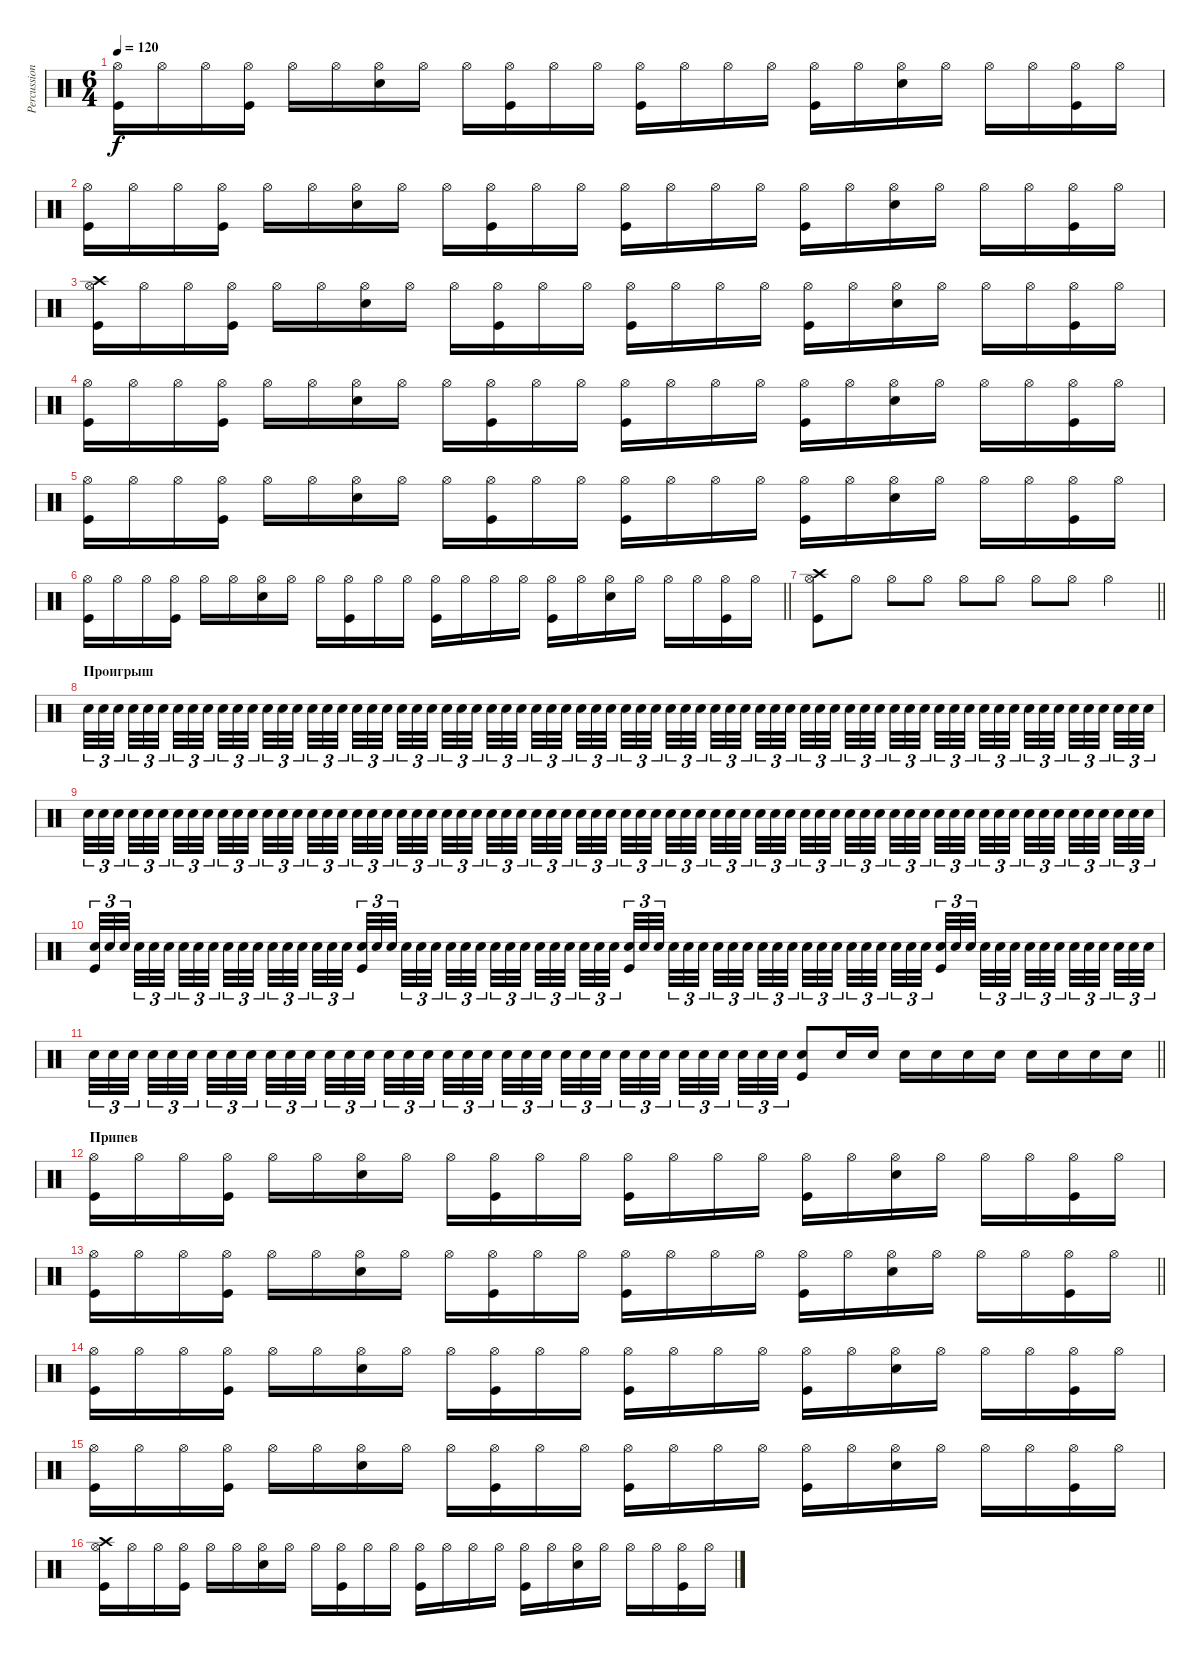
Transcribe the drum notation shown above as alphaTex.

\track ("Percussion" "Percussion") {instrument percussion}
\staff {score}
\articulation defaults
\ts (6 4)
\tempo 120
\clef neutral
\ks c
("Hi-Hat (open)" "Kick (hit)").16{dy f} "Hi-Hat (open)".16 "Hi-Hat (open)".16 ("Hi-Hat (open)" "Kick (hit)").16 "Hi-Hat (open)".16 "Hi-Hat (open)".16 ("Hi-Hat (open)" "Snare (hit) 2").16 "Hi-Hat (open)".16 "Hi-Hat (open)".16 ("Hi-Hat (open)" "Kick (hit)").16 "Hi-Hat (open)".16 "Hi-Hat (open)".16 ("Hi-Hat (open)" "Kick (hit)").16 "Hi-Hat (open)".16 "Hi-Hat (open)".16 "Hi-Hat (open)".16 ("Hi-Hat (open)" "Kick (hit)").16 "Hi-Hat (open)".16 ("Hi-Hat (open)" "Snare (hit) 2").16 "Hi-Hat (open)".16 "Hi-Hat (open)".16 "Hi-Hat (open)".16 ("Hi-Hat (open)" "Kick (hit)").16 "Hi-Hat (open)".16 |
("Hi-Hat (open)" "Kick (hit)").16 "Hi-Hat (open)".16 "Hi-Hat (open)".16 ("Hi-Hat (open)" "Kick (hit)").16 "Hi-Hat (open)".16 "Hi-Hat (open)".16 ("Hi-Hat (open)" "Snare (hit) 2").16 "Hi-Hat (open)".16 "Hi-Hat (open)".16 ("Hi-Hat (open)" "Kick (hit)").16 "Hi-Hat (open)".16 "Hi-Hat (open)".16 ("Hi-Hat (open)" "Kick (hit)").16 "Hi-Hat (open)".16 "Hi-Hat (open)".16 "Hi-Hat (open)".16 ("Hi-Hat (open)" "Kick (hit)").16 "Hi-Hat (open)".16 ("Hi-Hat (open)" "Snare (hit) 2").16 "Hi-Hat (open)".16 "Hi-Hat (open)".16 "Hi-Hat (open)".16 ("Hi-Hat (open)" "Kick (hit)").16 "Hi-Hat (open)".16 |
("Hi-Hat (open)" "Crash high (hit)" "Kick (hit)").16 "Hi-Hat (open)".16 "Hi-Hat (open)".16 ("Hi-Hat (open)" "Kick (hit)").16 "Hi-Hat (open)".16 "Hi-Hat (open)".16 ("Hi-Hat (open)" "Snare (hit) 2").16 "Hi-Hat (open)".16 "Hi-Hat (open)".16 ("Hi-Hat (open)" "Kick (hit)").16 "Hi-Hat (open)".16 "Hi-Hat (open)".16 ("Hi-Hat (open)" "Kick (hit)").16 "Hi-Hat (open)".16 "Hi-Hat (open)".16 "Hi-Hat (open)".16 ("Hi-Hat (open)" "Kick (hit)").16 "Hi-Hat (open)".16 ("Hi-Hat (open)" "Snare (hit) 2").16 "Hi-Hat (open)".16 "Hi-Hat (open)".16 "Hi-Hat (open)".16 ("Hi-Hat (open)" "Kick (hit)").16 "Hi-Hat (open)".16 |
("Hi-Hat (open)" "Kick (hit)").16 "Hi-Hat (open)".16 "Hi-Hat (open)".16 ("Hi-Hat (open)" "Kick (hit)").16 "Hi-Hat (open)".16 "Hi-Hat (open)".16 ("Hi-Hat (open)" "Snare (hit) 2").16 "Hi-Hat (open)".16 "Hi-Hat (open)".16 ("Hi-Hat (open)" "Kick (hit)").16 "Hi-Hat (open)".16 "Hi-Hat (open)".16 ("Hi-Hat (open)" "Kick (hit)").16 "Hi-Hat (open)".16 "Hi-Hat (open)".16 "Hi-Hat (open)".16 ("Hi-Hat (open)" "Kick (hit)").16 "Hi-Hat (open)".16 ("Hi-Hat (open)" "Snare (hit) 2").16 "Hi-Hat (open)".16 "Hi-Hat (open)".16 "Hi-Hat (open)".16 ("Hi-Hat (open)" "Kick (hit)").16 "Hi-Hat (open)".16 |
("Hi-Hat (open)" "Kick (hit)").16 "Hi-Hat (open)".16 "Hi-Hat (open)".16 ("Hi-Hat (open)" "Kick (hit)").16 "Hi-Hat (open)".16 "Hi-Hat (open)".16 ("Hi-Hat (open)" "Snare (hit) 2").16 "Hi-Hat (open)".16 "Hi-Hat (open)".16 ("Hi-Hat (open)" "Kick (hit)").16 "Hi-Hat (open)".16 "Hi-Hat (open)".16 ("Hi-Hat (open)" "Kick (hit)").16 "Hi-Hat (open)".16 "Hi-Hat (open)".16 "Hi-Hat (open)".16 ("Hi-Hat (open)" "Kick (hit)").16 "Hi-Hat (open)".16 ("Hi-Hat (open)" "Snare (hit) 2").16 "Hi-Hat (open)".16 "Hi-Hat (open)".16 "Hi-Hat (open)".16 ("Hi-Hat (open)" "Kick (hit)").16 "Hi-Hat (open)".16 |
\barLineRight lightlight
("Hi-Hat (open)" "Kick (hit)").16 "Hi-Hat (open)".16 "Hi-Hat (open)".16 ("Hi-Hat (open)" "Kick (hit)").16 "Hi-Hat (open)".16 "Hi-Hat (open)".16 ("Hi-Hat (open)" "Snare (hit) 2").16 "Hi-Hat (open)".16 "Hi-Hat (open)".16 ("Hi-Hat (open)" "Kick (hit)").16 "Hi-Hat (open)".16 "Hi-Hat (open)".16 ("Hi-Hat (open)" "Kick (hit)").16 "Hi-Hat (open)".16 "Hi-Hat (open)".16 "Hi-Hat (open)".16 ("Hi-Hat (open)" "Kick (hit)").16 "Hi-Hat (open)".16 ("Hi-Hat (open)" "Snare (hit) 2").16 "Hi-Hat (open)".16 "Hi-Hat (open)".16 "Hi-Hat (open)".16 ("Hi-Hat (open)" "Kick (hit)").16 "Hi-Hat (open)".16 |
\barLineRight lightlight
("Hi-Hat (open)" "Kick (hit)" "Crash high (hit)").8 "Hi-Hat (open)".8 "Hi-Hat (open)".8 "Hi-Hat (open)".8 "Hi-Hat (open)".8 "Hi-Hat (open)".8 "Hi-Hat (open)".8 "Hi-Hat (open)".8 "Hi-Hat (open)".2 |
\section ("" "Проигрыш")
"Snare (hit) 2".32{tu (3 2) volume 4} "Snare (hit) 2".32{tu (3 2)} "Snare (hit) 2".32{tu (3 2) beam splitsecondary} "Snare (hit) 2".32{tu (3 2)} "Snare (hit) 2".32{tu (3 2)} "Snare (hit) 2".32{tu (3 2) beam splitsecondary} "Snare (hit) 2".32{tu (3 2)} "Snare (hit) 2".32{tu (3 2)} "Snare (hit) 2".32{tu (3 2) beam splitsecondary} "Snare (hit) 2".32{tu (3 2)} "Snare (hit) 2".32{tu (3 2)} "Snare (hit) 2".32{tu (3 2) beam splitsecondary} "Snare (hit) 2".32{tu (3 2)} "Snare (hit) 2".32{tu (3 2)} "Snare (hit) 2".32{tu (3 2) beam splitsecondary} "Snare (hit) 2".32{tu (3 2)} "Snare (hit) 2".32{tu (3 2)} "Snare (hit) 2".32{tu (3 2) beam splitsecondary} "Snare (hit) 2".32{tu (3 2)} "Snare (hit) 2".32{tu (3 2)} "Snare (hit) 2".32{tu (3 2) beam splitsecondary} "Snare (hit) 2".32{tu (3 2)} "Snare (hit) 2".32{tu (3 2)} "Snare (hit) 2".32{tu (3 2) beam splitsecondary} "Snare (hit) 2".32{tu (3 2)} "Snare (hit) 2".32{tu (3 2)} "Snare (hit) 2".32{tu (3 2) beam splitsecondary} "Snare (hit) 2".32{tu (3 2)} "Snare (hit) 2".32{tu (3 2)} "Snare (hit) 2".32{tu (3 2) beam splitsecondary} "Snare (hit) 2".32{tu (3 2)} "Snare (hit) 2".32{tu (3 2)} "Snare (hit) 2".32{tu (3 2) beam splitsecondary} "Snare (hit) 2".32{tu (3 2)} "Snare (hit) 2".32{tu (3 2)} "Snare (hit) 2".32{tu (3 2)} "Snare (hit) 2".32{tu (3 2)} "Snare (hit) 2".32{tu (3 2)} "Snare (hit) 2".32{tu (3 2) beam splitsecondary} "Snare (hit) 2".32{tu (3 2)} "Snare (hit) 2".32{tu (3 2)} "Snare (hit) 2".32{tu (3 2) beam splitsecondary} "Snare (hit) 2".32{tu (3 2)} "Snare (hit) 2".32{tu (3 2)} "Snare (hit) 2".32{tu (3 2) beam splitsecondary} "Snare (hit) 2".32{tu (3 2)} "Snare (hit) 2".32{tu (3 2)} "Snare (hit) 2".32{tu (3 2) beam splitsecondary} "Snare (hit) 2".32{tu (3 2)} "Snare (hit) 2".32{tu (3 2)} "Snare (hit) 2".32{tu (3 2) beam splitsecondary} "Snare (hit) 2".32{tu (3 2)} "Snare (hit) 2".32{tu (3 2)} "Snare (hit) 2".32{tu (3 2) beam splitsecondary} "Snare (hit) 2".32{tu (3 2)} "Snare (hit) 2".32{tu (3 2)} "Snare (hit) 2".32{tu (3 2) beam splitsecondary} "Snare (hit) 2".32{tu (3 2)} "Snare (hit) 2".32{tu (3 2)} "Snare (hit) 2".32{tu (3 2) beam splitsecondary} "Snare (hit) 2".32{tu (3 2)} "Snare (hit) 2".32{tu (3 2)} "Snare (hit) 2".32{tu (3 2) beam splitsecondary} "Snare (hit) 2".32{tu (3 2)} "Snare (hit) 2".32{tu (3 2)} "Snare (hit) 2".32{tu (3 2) beam splitsecondary} "Snare (hit) 2".32{tu (3 2)} "Snare (hit) 2".32{tu (3 2)} "Snare (hit) 2".32{tu (3 2) beam splitsecondary} "Snare (hit) 2".32{tu (3 2)} "Snare (hit) 2".32{tu (3 2)} "Snare (hit) 2".32{tu (3 2)} |
"Snare (hit) 2".32{tu (3 2) volume 4} "Snare (hit) 2".32{tu (3 2)} "Snare (hit) 2".32{tu (3 2) beam splitsecondary} "Snare (hit) 2".32{tu (3 2)} "Snare (hit) 2".32{tu (3 2)} "Snare (hit) 2".32{tu (3 2) beam splitsecondary} "Snare (hit) 2".32{tu (3 2)} "Snare (hit) 2".32{tu (3 2)} "Snare (hit) 2".32{tu (3 2) beam splitsecondary} "Snare (hit) 2".32{tu (3 2)} "Snare (hit) 2".32{tu (3 2)} "Snare (hit) 2".32{tu (3 2) beam splitsecondary} "Snare (hit) 2".32{tu (3 2)} "Snare (hit) 2".32{tu (3 2)} "Snare (hit) 2".32{tu (3 2) beam splitsecondary} "Snare (hit) 2".32{tu (3 2)} "Snare (hit) 2".32{tu (3 2)} "Snare (hit) 2".32{tu (3 2) beam splitsecondary} "Snare (hit) 2".32{tu (3 2)} "Snare (hit) 2".32{tu (3 2)} "Snare (hit) 2".32{tu (3 2) beam splitsecondary} "Snare (hit) 2".32{tu (3 2)} "Snare (hit) 2".32{tu (3 2)} "Snare (hit) 2".32{tu (3 2) beam splitsecondary} "Snare (hit) 2".32{tu (3 2)} "Snare (hit) 2".32{tu (3 2)} "Snare (hit) 2".32{tu (3 2) beam splitsecondary} "Snare (hit) 2".32{tu (3 2)} "Snare (hit) 2".32{tu (3 2)} "Snare (hit) 2".32{tu (3 2) beam splitsecondary} "Snare (hit) 2".32{tu (3 2)} "Snare (hit) 2".32{tu (3 2)} "Snare (hit) 2".32{tu (3 2) beam splitsecondary} "Snare (hit) 2".32{tu (3 2)} "Snare (hit) 2".32{tu (3 2)} "Snare (hit) 2".32{tu (3 2)} "Snare (hit) 2".32{tu (3 2)} "Snare (hit) 2".32{tu (3 2)} "Snare (hit) 2".32{tu (3 2) beam splitsecondary} "Snare (hit) 2".32{tu (3 2)} "Snare (hit) 2".32{tu (3 2)} "Snare (hit) 2".32{tu (3 2) beam splitsecondary} "Snare (hit) 2".32{tu (3 2)} "Snare (hit) 2".32{tu (3 2)} "Snare (hit) 2".32{tu (3 2) beam splitsecondary} "Snare (hit) 2".32{tu (3 2)} "Snare (hit) 2".32{tu (3 2)} "Snare (hit) 2".32{tu (3 2) beam splitsecondary} "Snare (hit) 2".32{tu (3 2)} "Snare (hit) 2".32{tu (3 2)} "Snare (hit) 2".32{tu (3 2) beam splitsecondary} "Snare (hit) 2".32{tu (3 2)} "Snare (hit) 2".32{tu (3 2)} "Snare (hit) 2".32{tu (3 2) beam splitsecondary} "Snare (hit) 2".32{tu (3 2)} "Snare (hit) 2".32{tu (3 2)} "Snare (hit) 2".32{tu (3 2) beam splitsecondary} "Snare (hit) 2".32{tu (3 2)} "Snare (hit) 2".32{tu (3 2)} "Snare (hit) 2".32{tu (3 2) beam splitsecondary} "Snare (hit) 2".32{tu (3 2)} "Snare (hit) 2".32{tu (3 2)} "Snare (hit) 2".32{tu (3 2) beam splitsecondary} "Snare (hit) 2".32{tu (3 2)} "Snare (hit) 2".32{tu (3 2)} "Snare (hit) 2".32{tu (3 2) beam splitsecondary} "Snare (hit) 2".32{tu (3 2)} "Snare (hit) 2".32{tu (3 2)} "Snare (hit) 2".32{tu (3 2) beam splitsecondary} "Snare (hit) 2".32{tu (3 2)} "Snare (hit) 2".32{tu (3 2)} "Snare (hit) 2".32{tu (3 2)} |
("Snare (hit) 2" "Kick (hit)").32{tu (3 2) volume 4} "Snare (hit) 2".32{tu (3 2)} "Snare (hit) 2".32{tu (3 2) beam splitsecondary} "Snare (hit) 2".32{tu (3 2)} "Snare (hit) 2".32{tu (3 2)} "Snare (hit) 2".32{tu (3 2) beam splitsecondary} "Snare (hit) 2".32{tu (3 2)} "Snare (hit) 2".32{tu (3 2)} "Snare (hit) 2".32{tu (3 2) beam splitsecondary} "Snare (hit) 2".32{tu (3 2)} "Snare (hit) 2".32{tu (3 2)} "Snare (hit) 2".32{tu (3 2) beam splitsecondary} "Snare (hit) 2".32{tu (3 2)} "Snare (hit) 2".32{tu (3 2)} "Snare (hit) 2".32{tu (3 2) beam splitsecondary} "Snare (hit) 2".32{tu (3 2)} "Snare (hit) 2".32{tu (3 2)} "Snare (hit) 2".32{tu (3 2) beam splitsecondary} ("Snare (hit) 2" "Kick (hit)").32{tu (3 2)} "Snare (hit) 2".32{tu (3 2)} "Snare (hit) 2".32{tu (3 2) beam splitsecondary} "Snare (hit) 2".32{tu (3 2)} "Snare (hit) 2".32{tu (3 2)} "Snare (hit) 2".32{tu (3 2) beam splitsecondary} "Snare (hit) 2".32{tu (3 2)} "Snare (hit) 2".32{tu (3 2)} "Snare (hit) 2".32{tu (3 2) beam splitsecondary} "Snare (hit) 2".32{tu (3 2)} "Snare (hit) 2".32{tu (3 2)} "Snare (hit) 2".32{tu (3 2) beam splitsecondary} "Snare (hit) 2".32{tu (3 2)} "Snare (hit) 2".32{tu (3 2)} "Snare (hit) 2".32{tu (3 2) beam splitsecondary} "Snare (hit) 2".32{tu (3 2)} "Snare (hit) 2".32{tu (3 2)} "Snare (hit) 2".32{tu (3 2)} ("Snare (hit) 2" "Kick (hit)").32{tu (3 2)} "Snare (hit) 2".32{tu (3 2)} "Snare (hit) 2".32{tu (3 2) beam splitsecondary} "Snare (hit) 2".32{tu (3 2)} "Snare (hit) 2".32{tu (3 2)} "Snare (hit) 2".32{tu (3 2) beam splitsecondary} "Snare (hit) 2".32{tu (3 2)} "Snare (hit) 2".32{tu (3 2)} "Snare (hit) 2".32{tu (3 2) beam splitsecondary} "Snare (hit) 2".32{tu (3 2)} "Snare (hit) 2".32{tu (3 2)} "Snare (hit) 2".32{tu (3 2) beam splitsecondary} "Snare (hit) 2".32{tu (3 2)} "Snare (hit) 2".32{tu (3 2)} "Snare (hit) 2".32{tu (3 2) beam splitsecondary} "Snare (hit) 2".32{tu (3 2)} "Snare (hit) 2".32{tu (3 2)} "Snare (hit) 2".32{tu (3 2) beam splitsecondary} "Snare (hit) 2".32{tu (3 2)} "Snare (hit) 2".32{tu (3 2)} "Snare (hit) 2".32{tu (3 2) beam splitsecondary} ("Snare (hit) 2" "Kick (hit)").32{tu (3 2)} "Snare (hit) 2".32{tu (3 2)} "Snare (hit) 2".32{tu (3 2) beam splitsecondary} "Snare (hit) 2".32{tu (3 2)} "Snare (hit) 2".32{tu (3 2)} "Snare (hit) 2".32{tu (3 2) beam splitsecondary} "Snare (hit) 2".32{tu (3 2)} "Snare (hit) 2".32{tu (3 2)} "Snare (hit) 2".32{tu (3 2) beam splitsecondary} "Snare (hit) 2".32{tu (3 2)} "Snare (hit) 2".32{tu (3 2)} "Snare (hit) 2".32{tu (3 2) beam splitsecondary} "Snare (hit) 2".32{tu (3 2)} "Snare (hit) 2".32{tu (3 2)} "Snare (hit) 2".32{tu (3 2)} |
\barLineRight lightlight "Snare (hit) 2".32{tu (3 2) volume 11} "Snare (hit) 2".32{tu (3 2)} "Snare (hit) 2".32{tu (3 2) beam splitsecondary} "Snare (hit) 2".32{tu (3 2)} "Snare (hit) 2".32{tu (3 2)} "Snare (hit) 2".32{tu (3 2) beam splitsecondary} "Snare (hit) 2".32{tu (3 2)} "Snare (hit) 2".32{tu (3 2)} "Snare (hit) 2".32{tu (3 2) beam splitsecondary} "Snare (hit) 2".32{tu (3 2)} "Snare (hit) 2".32{tu (3 2)} "Snare (hit) 2".32{tu (3 2) beam splitsecondary} "Snare (hit) 2".32{tu (3 2)} "Snare (hit) 2".32{tu (3 2)} "Snare (hit) 2".32{tu (3 2) beam splitsecondary} "Snare (hit) 2".32{tu (3 2)} "Snare (hit) 2".32{tu (3 2)} "Snare (hit) 2".32{tu (3 2) beam splitsecondary} "Snare (hit) 2".32{tu (3 2)} "Snare (hit) 2".32{tu (3 2)} "Snare (hit) 2".32{tu (3 2) beam splitsecondary} "Snare (hit) 2".32{tu (3 2)} "Snare (hit) 2".32{tu (3 2)} "Snare (hit) 2".32{tu (3 2) beam splitsecondary} "Snare (hit) 2".32{tu (3 2)} "Snare (hit) 2".32{tu (3 2)} "Snare (hit) 2".32{tu (3 2) beam splitsecondary} "Snare (hit) 2".32{tu (3 2)} "Snare (hit) 2".32{tu (3 2)} "Snare (hit) 2".32{tu (3 2) beam splitsecondary} "Snare (hit) 2".32{tu (3 2)} "Snare (hit) 2".32{tu (3 2)} "Snare (hit) 2".32{tu (3 2) beam splitsecondary} "Snare (hit) 2".32{tu (3 2)} "Snare (hit) 2".32{tu (3 2)} "Snare (hit) 2".32{tu (3 2)}
("Kick (hit)" "Snare (hit) 2").8 "Snare (hit) 2".16 "Snare (hit) 2".16 "Snare (hit) 2".16 "Snare (hit) 2".16 "Snare (hit) 2".16 "Snare (hit) 2".16 "Snare (hit) 2".16 "Snare (hit) 2".16 "Snare (hit) 2".16 "Snare (hit) 2".16 |
\section ("" "Припев")
("Hi-Hat (open)" "Kick (hit)").16 "Hi-Hat (open)".16 "Hi-Hat (open)".16 ("Hi-Hat (open)" "Kick (hit)").16 "Hi-Hat (open)".16 "Hi-Hat (open)".16 ("Hi-Hat (open)" "Snare (hit) 2").16 "Hi-Hat (open)".16 "Hi-Hat (open)".16 ("Hi-Hat (open)" "Kick (hit)").16 "Hi-Hat (open)".16 "Hi-Hat (open)".16 ("Hi-Hat (open)" "Kick (hit)").16 "Hi-Hat (open)".16 "Hi-Hat (open)".16 "Hi-Hat (open)".16 ("Hi-Hat (open)" "Kick (hit)").16 "Hi-Hat (open)".16 ("Hi-Hat (open)" "Snare (hit) 2").16 "Hi-Hat (open)".16 "Hi-Hat (open)".16 "Hi-Hat (open)".16 ("Hi-Hat (open)" "Kick (hit)").16 "Hi-Hat (open)".16 |
\barLineRight lightlight
("Hi-Hat (open)" "Kick (hit)").16 "Hi-Hat (open)".16 "Hi-Hat (open)".16 ("Hi-Hat (open)" "Kick (hit)").16 "Hi-Hat (open)".16 "Hi-Hat (open)".16 ("Hi-Hat (open)" "Snare (hit) 2").16 "Hi-Hat (open)".16 "Hi-Hat (open)".16 ("Hi-Hat (open)" "Kick (hit)").16 "Hi-Hat (open)".16 "Hi-Hat (open)".16 ("Hi-Hat (open)" "Kick (hit)").16 "Hi-Hat (open)".16 "Hi-Hat (open)".16 "Hi-Hat (open)".16 ("Hi-Hat (open)" "Kick (hit)").16 "Hi-Hat (open)".16 ("Hi-Hat (open)" "Snare (hit) 2").16 "Hi-Hat (open)".16 "Hi-Hat (open)".16 "Hi-Hat (open)".16 ("Hi-Hat (open)" "Kick (hit)").16 "Hi-Hat (open)".16 |
("Hi-Hat (open)" "Kick (hit)").16 "Hi-Hat (open)".16 "Hi-Hat (open)".16 ("Hi-Hat (open)" "Kick (hit)").16 "Hi-Hat (open)".16 "Hi-Hat (open)".16 ("Hi-Hat (open)" "Snare (hit) 2").16 "Hi-Hat (open)".16 "Hi-Hat (open)".16 ("Hi-Hat (open)" "Kick (hit)").16 "Hi-Hat (open)".16 "Hi-Hat (open)".16 ("Hi-Hat (open)" "Kick (hit)").16 "Hi-Hat (open)".16 "Hi-Hat (open)".16 "Hi-Hat (open)".16 ("Hi-Hat (open)" "Kick (hit)").16 "Hi-Hat (open)".16 ("Hi-Hat (open)" "Snare (hit) 2").16 "Hi-Hat (open)".16 "Hi-Hat (open)".16 "Hi-Hat (open)".16 ("Hi-Hat (open)" "Kick (hit)").16 "Hi-Hat (open)".16 |
("Hi-Hat (open)" "Kick (hit)").16 "Hi-Hat (open)".16 "Hi-Hat (open)".16 ("Hi-Hat (open)" "Kick (hit)").16 "Hi-Hat (open)".16 "Hi-Hat (open)".16 ("Hi-Hat (open)" "Snare (hit) 2").16 "Hi-Hat (open)".16 "Hi-Hat (open)".16 ("Hi-Hat (open)" "Kick (hit)").16 "Hi-Hat (open)".16 "Hi-Hat (open)".16 ("Hi-Hat (open)" "Kick (hit)").16 "Hi-Hat (open)".16 "Hi-Hat (open)".16 "Hi-Hat (open)".16 ("Hi-Hat (open)" "Kick (hit)").16 "Hi-Hat (open)".16 ("Hi-Hat (open)" "Snare (hit) 2").16 "Hi-Hat (open)".16 "Hi-Hat (open)".16 "Hi-Hat (open)".16 ("Hi-Hat (open)" "Kick (hit)").16 "Hi-Hat (open)".16 |
("Hi-Hat (open)" "Crash high (hit)" "Kick (hit)").16 "Hi-Hat (open)".16 "Hi-Hat (open)".16 ("Hi-Hat (open)" "Kick (hit)").16 "Hi-Hat (open)".16 "Hi-Hat (open)".16 ("Hi-Hat (open)" "Snare (hit) 2").16 "Hi-Hat (open)".16 "Hi-Hat (open)".16 ("Hi-Hat (open)" "Kick (hit)").16 "Hi-Hat (open)".16 "Hi-Hat (open)".16 ("Hi-Hat (open)" "Kick (hit)").16 "Hi-Hat (open)".16 "Hi-Hat (open)".16 "Hi-Hat (open)".16 ("Hi-Hat (open)" "Kick (hit)").16 "Hi-Hat (open)".16 ("Hi-Hat (open)" "Snare (hit) 2").16 "Hi-Hat (open)".16 "Hi-Hat (open)".16 "Hi-Hat (open)".16 ("Hi-Hat (open)" "Kick (hit)").16 "Hi-Hat (open)".16
